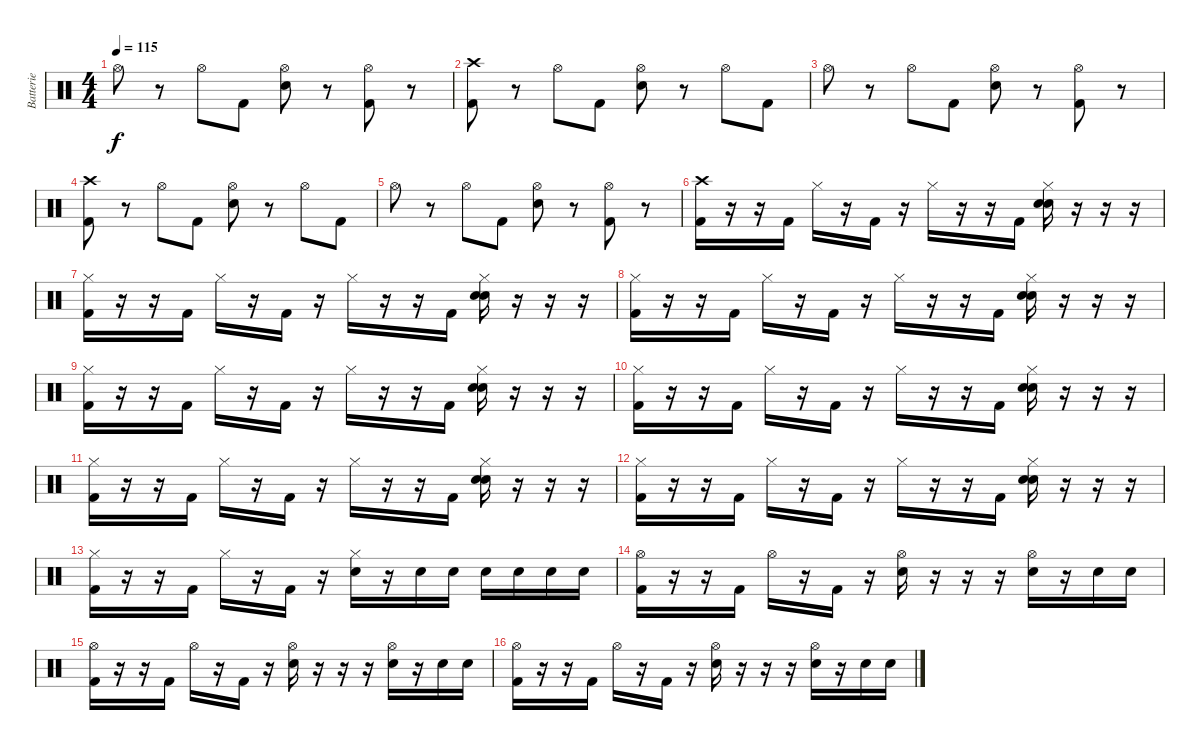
\track ("Batterie" "Batterie") {instrument percussion}
\staff {score}
\articulation defaults
\ts (4 4)
\tempo 115
\clef neutral
\ks c "Hi-Hat (open)".8{dy f}
r.8 "Hi-Hat (open)".8 "Kick (hit) 2".8 ("Hi-Hat (open)" "Electric Snare (hit)").8 r.8 ("Hi-Hat (open)" "Kick (hit) 2").8 r.8 |
("Crash high (hit)" "Kick (hit) 2").8 r.8 "Hi-Hat (open)".8 "Kick (hit) 2".8 ("Hi-Hat (open)" "Electric Snare (hit)").8 r.8 "Hi-Hat (open)".8 "Kick (hit) 2".8 |
"Hi-Hat (open)".8 r.8 "Hi-Hat (open)".8 "Kick (hit) 2".8 ("Hi-Hat (open)" "Electric Snare (hit)").8 r.8 ("Hi-Hat (open)" "Kick (hit) 2").8 r.8 |
("Crash high (hit)" "Kick (hit) 2").8 r.8 "Hi-Hat (open)".8 "Kick (hit) 2".8 ("Hi-Hat (open)" "Electric Snare (hit)").8 r.8 "Hi-Hat (open)".8 "Kick (hit) 2".8 |
"Hi-Hat (open)".8 r.8 "Hi-Hat (open)".8 "Kick (hit) 2".8 ("Hi-Hat (open)" "Electric Snare (hit)").8 r.8 ("Hi-Hat (open)" "Kick (hit) 2").8 r.8 |
("Crash high (hit)" "Kick (hit) 2").16 r.16 r.16 "Kick (hit) 2".16 "Hi-Hat (closed)".16 r.16 "Kick (hit) 2".16 r.16 "Hi-Hat (closed)".16 r.16 r.16 "Kick (hit) 2".16 ("Hi-Hat (closed)" "Electric Snare (hit)" "Electric Snare (hit)").16 r.16 r.16 r.16 |
("Hi-Hat (closed)" "Kick (hit) 2").16 r.16 r.16 "Kick (hit) 2".16 "Hi-Hat (closed)".16 r.16 "Kick (hit) 2".16 r.16 "Hi-Hat (closed)".16 r.16 r.16 "Kick (hit) 2".16 ("Hi-Hat (closed)" "Electric Snare (hit)" "Electric Snare (hit)").16 r.16 r.16 r.16 |
("Hi-Hat (closed)" "Kick (hit) 2").16 r.16 r.16 "Kick (hit) 2".16 "Hi-Hat (closed)".16 r.16 "Kick (hit) 2".16 r.16 "Hi-Hat (closed)".16 r.16 r.16 "Kick (hit) 2".16 ("Hi-Hat (closed)" "Electric Snare (hit)" "Electric Snare (hit)").16 r.16 r.16 r.16 |
("Hi-Hat (closed)" "Kick (hit) 2").16 r.16 r.16 "Kick (hit) 2".16 "Hi-Hat (closed)".16 r.16 "Kick (hit) 2".16 r.16 "Hi-Hat (closed)".16 r.16 r.16 "Kick (hit) 2".16 ("Hi-Hat (closed)" "Electric Snare (hit)" "Electric Snare (hit)").16 r.16 r.16 r.16 |
("Hi-Hat (closed)" "Kick (hit) 2").16 r.16 r.16 "Kick (hit) 2".16 "Hi-Hat (closed)".16 r.16 "Kick (hit) 2".16 r.16 "Hi-Hat (closed)".16 r.16 r.16 "Kick (hit) 2".16 ("Hi-Hat (closed)" "Electric Snare (hit)" "Electric Snare (hit)").16 r.16 r.16 r.16 |
("Hi-Hat (closed)" "Kick (hit) 2").16 r.16 r.16 "Kick (hit) 2".16 "Hi-Hat (closed)".16 r.16 "Kick (hit) 2".16 r.16 "Hi-Hat (closed)".16 r.16 r.16 "Kick (hit) 2".16 ("Hi-Hat (closed)" "Electric Snare (hit)" "Electric Snare (hit)").16 r.16 r.16 r.16 |
("Hi-Hat (closed)" "Kick (hit) 2").16 r.16 r.16 "Kick (hit) 2".16 "Hi-Hat (closed)".16 r.16 "Kick (hit) 2".16 r.16 "Hi-Hat (closed)".16 r.16 r.16 "Kick (hit) 2".16 ("Hi-Hat (closed)" "Electric Snare (hit)" "Electric Snare (hit)").16 r.16 r.16 r.16 |
("Hi-Hat (closed)" "Kick (hit) 2").16 r.16 r.16 "Kick (hit) 2".16 "Hi-Hat (closed)".16 r.16 "Kick (hit) 2".16 r.16 ("Hi-Hat (closed)" "Electric Snare (hit)").16 r.16 "Electric Snare (hit)".16 "Electric Snare (hit)".16 "Electric Snare (hit)".16 "Electric Snare (hit)".16 "Electric Snare (hit)".16 "Electric Snare (hit)".16 |
("Hi-Hat (open)" "Kick (hit) 2").16 r.16 r.16 "Kick (hit) 2".16 "Hi-Hat (open)".16 r.16 "Kick (hit) 2".16 r.16 ("Hi-Hat (open)" "Electric Snare (hit)").16 r.16 r.16 r.16 ("Hi-Hat (open)" "Electric Snare (hit)").16 r.16 "Electric Snare (hit)".16 "Electric Snare (hit)".16 |
("Hi-Hat (open)" "Kick (hit) 2").16 r.16 r.16 "Kick (hit) 2".16 "Hi-Hat (open)".16 r.16 "Kick (hit) 2".16 r.16 ("Hi-Hat (open)" "Electric Snare (hit)").16 r.16 r.16 r.16 ("Hi-Hat (open)" "Electric Snare (hit)").16 r.16 "Electric Snare (hit)".16 "Electric Snare (hit)".16 |
("Hi-Hat (open)" "Kick (hit) 2").16 r.16 r.16 "Kick (hit) 2".16 "Hi-Hat (open)".16 r.16 "Kick (hit) 2".16 r.16 ("Hi-Hat (open)" "Electric Snare (hit)").16 r.16 r.16 r.16 ("Hi-Hat (open)" "Electric Snare (hit)").16 r.16 "Electric Snare (hit)".16 "Electric Snare (hit)".16
